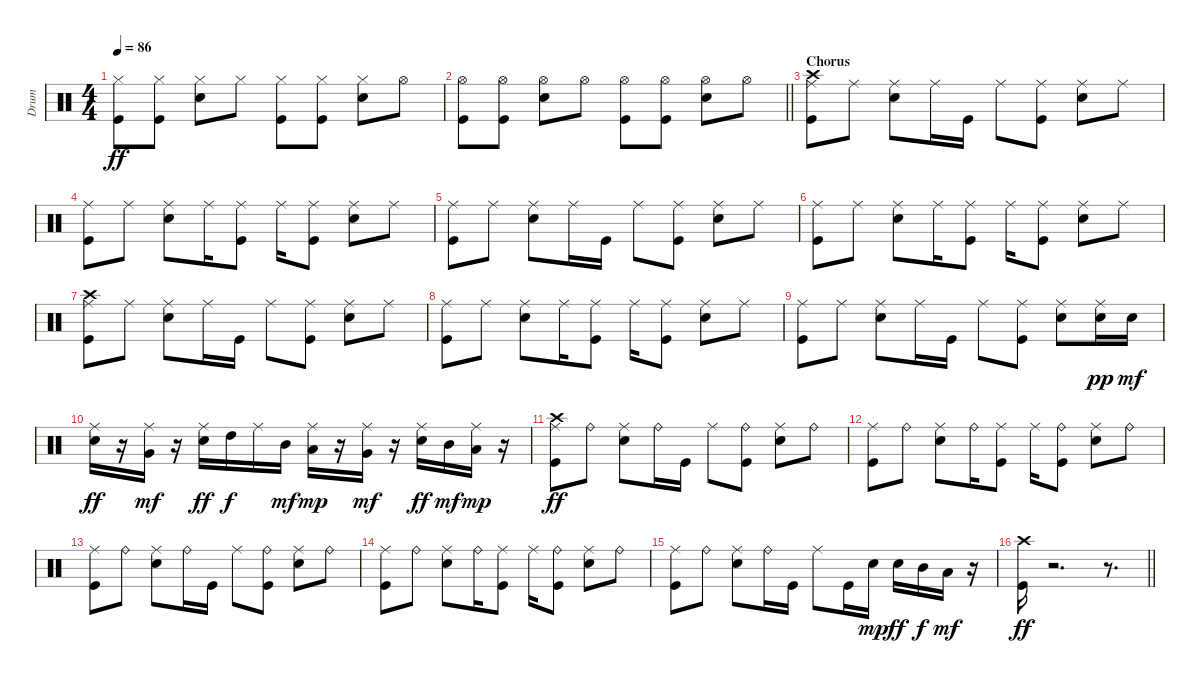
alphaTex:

\track ("Drum" "Drum") {instrument percussion}
\staff {score}
\articulation defaults
\ts (4 4)
\tempo 86
\clef neutral
\ks c
("Hi-Hat (closed)" "Kick (hit)").8{dy ff} ("Hi-Hat (closed)" "Kick (hit)").8 ("Hi-Hat (closed)" "Electric Snare (hit)").8 "Hi-Hat (closed)".8 ("Hi-Hat (closed)" "Kick (hit)").8 ("Hi-Hat (closed)" "Kick (hit)").8 ("Hi-Hat (closed)" "Electric Snare (hit)").8 "Hi-Hat (open)".8 |
\barLineRight lightlight
("Kick (hit)" "Hi-Hat (open)").8 ("Hi-Hat (open)" "Kick (hit)").8 ("Hi-Hat (open)" "Electric Snare (hit)").8 "Hi-Hat (open)".8 ("Hi-Hat (open)" "Kick (hit)").8 ("Kick (hit)" "Hi-Hat (open)").8 ("Electric Snare (hit)" "Hi-Hat (open)").8 "Hi-Hat (open)".8 |
\section ("" "Chorus")
("Crash high (hit)" "Ride (middle)" "Kick (hit)").8 "Ride (middle)".8 ("Ride (middle)" "Electric Snare (hit)").8 "Ride (middle)".16 "Kick (hit)".16 "Ride (middle)".8 ("Ride (middle)" "Kick (hit)").8 ("Ride (middle)" "Electric Snare (hit)").8 "Ride (middle)".8 |
("Ride (middle)" "Kick (hit)").8 "Ride (middle)".8 ("Ride (middle)" "Electric Snare (hit)").8 "Ride (middle)".16 ("Ride (middle)" "Kick (hit)").8 "Ride (middle)".16 ("Ride (middle)" "Kick (hit)").8 ("Electric Snare (hit)" "Ride (middle)").8 "Ride (middle)".8 |
("Ride (middle)" "Kick (hit)").8 "Ride (middle)".8 ("Ride (middle)" "Electric Snare (hit)").8 "Ride (middle)".16 "Kick (hit)".16 "Ride (middle)".8 ("Ride (middle)" "Kick (hit)").8 ("Electric Snare (hit)" "Ride (middle)").8 "Ride (middle)".8 |
("Ride (middle)" "Kick (hit)").8 "Ride (middle)".8 ("Ride (middle)" "Electric Snare (hit)").8 "Ride (middle)".16 ("Ride (middle)" "Kick (hit)").8 "Ride (middle)".16 ("Ride (middle)" "Kick (hit)").8 ("Electric Snare (hit)" "Ride (middle)").8 "Ride (middle)".8 |
("Ride (middle)" "Kick (hit)" "Crash high (hit)").8 "Ride (middle)".8 ("Electric Snare (hit)" "Ride (middle)").8 "Ride (middle)".16 "Kick (hit)".16 "Ride (middle)".8 ("Ride (middle)" "Kick (hit)").8 ("Electric Snare (hit)" "Ride (middle)").8 "Ride (middle)".8 |
("Ride (middle)" "Kick (hit)").8 "Ride (middle)".8 ("Ride (middle)" "Electric Snare (hit)").8 "Ride (middle)".16 ("Ride (middle)" "Kick (hit)").8 "Ride (middle)".16 ("Ride (middle)" "Kick (hit)").8 ("Electric Snare (hit)" "Ride (middle)").8 "Ride (middle)".8 |
("Ride (middle)" "Kick (hit)").8 "Ride (middle)".8 ("Electric Snare (hit)" "Ride (middle)").8 "Ride (middle)".16 "Kick (hit)".16 "Ride (middle)".8 ("Ride (middle)" "Kick (hit)").8 ("Electric Snare (hit)" "Ride (middle)").8 ("Ride (middle)" "Electric Snare (hit)").16{dy pp} "Electric Snare (hit)".16{dy mf} |
("Electric Snare (hit)" "Ride (middle)").16{dy ff} r.16 ("Ride (middle)" "Very Low Tom (hit)").16{dy mf} r.16 ("Ride (middle)" "Electric Snare (hit)").16{dy ff} "High Tom (hit)".16{dy f} "Ride (middle)".16 "Mid Tom (hit)".16{dy mf} ("Ride (middle)" "Low Tom (hit)").16{dy mp} r.16 ("Ride (middle)" "Very Low Tom (hit)").16{dy mf} r.16 ("Ride (middle)" "Electric Snare (hit)").16{dy ff} "Mid Tom (hit)".16{dy mf} ("Ride (middle)" "Low Tom (hit)").16{dy mp} r.16 |
("Crash high (hit)" "Ride (middle)" "Kick (hit)").8{dy ff} "Ride (bell)".8 ("Ride (middle)" "Electric Snare (hit)").8 "Ride (bell)".16 "Kick (hit)".16 "Ride (middle)".8 ("Kick (hit)" "Ride (bell)").8 ("Electric Snare (hit)" "Ride (middle)").8 "Ride (bell)".8 |
("Ride (middle)" "Kick (hit)").8 "Ride (bell)".8 ("Ride (middle)" "Electric Snare (hit)").8 "Ride (bell)".16 ("Kick (hit)" "Ride (middle)").8 "Ride (middle)".16 ("Kick (hit)" "Ride (bell)").8 ("Electric Snare (hit)" "Ride (middle)").8 "Ride (bell)".8 |
("Ride (middle)" "Kick (hit)").8 "Ride (bell)".8 ("Ride (middle)" "Electric Snare (hit)").8 "Ride (bell)".16 "Kick (hit)".16 "Ride (middle)".8 ("Kick (hit)" "Ride (bell)").8 ("Electric Snare (hit)" "Ride (middle)").8 "Ride (bell)".8 |
("Ride (middle)" "Kick (hit)").8 "Ride (bell)".8 ("Ride (middle)" "Electric Snare (hit)").8 "Ride (bell)".16 ("Kick (hit)" "Ride (middle)").8 "Ride (middle)".16 ("Kick (hit)" "Ride (bell)").8 ("Electric Snare (hit)" "Ride (middle)").8 "Ride (bell)".8 |
("Ride (middle)" "Kick (hit)").8 "Ride (bell)".8 ("Ride (middle)" "Electric Snare (hit)").8 "Ride (bell)".16 "Kick (hit)".16 "Ride (middle)".8 "Kick (hit)".16 "Electric Snare (hit)".16{dy mp} "Electric Snare (hit)".16{dy ff} "Mid Tom (hit)".16{dy f} "Low Tom (hit)".16{dy mf} r.16 |
\barLineRight lightlight
("Crash high (hit)" "Kick (hit)").16{dy ff} r.2{d} r.8{d}
